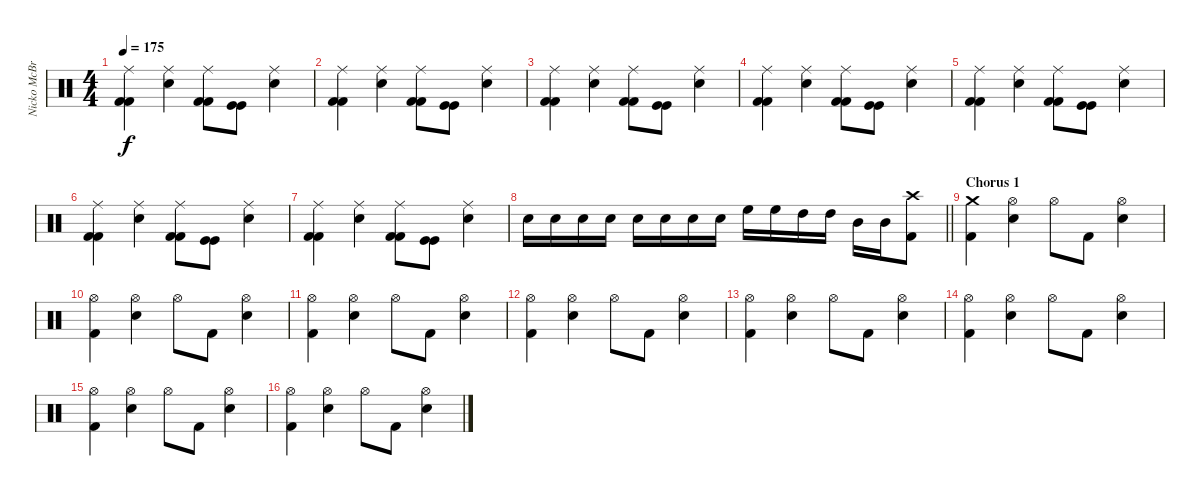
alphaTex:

\track ("Nicko McBrian" "Nicko McBr") {instrument percussion}
\staff {score}
\articulation defaults
\ts (4 4)
\tempo 175
\clef neutral
\ks c
("Ride (middle)" "Kick (hit) 2" "Kick (hit) 2").4{dy f} ("Ride (middle)" "Snare (hit) 2").4 ("Ride (middle)" "Kick (hit) 2" "Kick (hit) 2").8 ("Kick (hit)" "Kick (hit)").8 ("Ride (middle)" "Snare (hit) 2").4 |
("Ride (middle)" "Kick (hit) 2" "Kick (hit) 2").4 ("Ride (middle)" "Snare (hit) 2").4 ("Ride (middle)" "Kick (hit) 2" "Kick (hit) 2").8 ("Kick (hit)" "Kick (hit)").8 ("Ride (middle)" "Snare (hit) 2").4 |
("Ride (middle)" "Kick (hit) 2" "Kick (hit) 2").4 ("Ride (middle)" "Snare (hit) 2").4 ("Ride (middle)" "Kick (hit) 2" "Kick (hit) 2").8 ("Kick (hit)" "Kick (hit)").8 ("Ride (middle)" "Snare (hit) 2").4 |
("Ride (middle)" "Kick (hit) 2" "Kick (hit) 2").4 ("Ride (middle)" "Snare (hit) 2").4 ("Ride (middle)" "Kick (hit) 2" "Kick (hit) 2").8 ("Kick (hit)" "Kick (hit)").8 ("Ride (middle)" "Snare (hit) 2").4 |
("Ride (middle)" "Kick (hit) 2" "Kick (hit) 2").4 ("Ride (middle)" "Snare (hit) 2").4 ("Ride (middle)" "Kick (hit) 2" "Kick (hit) 2").8 ("Kick (hit)" "Kick (hit)").8 ("Ride (middle)" "Snare (hit) 2").4 |
("Ride (middle)" "Kick (hit) 2" "Kick (hit) 2").4 ("Ride (middle)" "Snare (hit) 2").4 ("Ride (middle)" "Kick (hit) 2" "Kick (hit) 2").8 ("Kick (hit)" "Kick (hit)").8 ("Ride (middle)" "Snare (hit) 2").4 |
("Ride (middle)" "Kick (hit) 2" "Kick (hit) 2").4 ("Ride (middle)" "Snare (hit) 2").4 ("Ride (middle)" "Kick (hit) 2" "Kick (hit) 2").8 ("Kick (hit)" "Kick (hit)").8 ("Ride (middle)" "Snare (hit) 2").4 |
\barLineRight lightlight "Snare (hit) 2".16 "Snare (hit) 2".16 "Snare (hit) 2".16 "Snare (hit) 2".16 "Snare (hit) 2".16 "Snare (hit) 2".16 "Snare (hit) 2".16 "Snare (hit) 2".16 "High Floor Tom (hit)".16 "High Floor Tom (hit)".16 "High Tom (hit)".16 "High Tom (hit)".16 "Mid Tom (hit)".16 "Mid Tom (hit)".16
("Crash high (hit)" "Kick (hit) 2").8 |
\section ("" "Chorus 1")
("Crash medium (hit)" "Kick (hit) 2").4 ("Hi-Hat (open)" "Snare (hit) 2").4 "Hi-Hat (open)".8 "Kick (hit) 2".8 ("Hi-Hat (open)" "Snare (hit) 2").4 |
("Hi-Hat (open)" "Kick (hit) 2").4 ("Hi-Hat (open)" "Snare (hit) 2").4 "Hi-Hat (open)".8 "Kick (hit) 2".8 ("Hi-Hat (open)" "Snare (hit) 2").4 |
("Hi-Hat (open)" "Kick (hit) 2").4 ("Hi-Hat (open)" "Snare (hit) 2").4 "Hi-Hat (open)".8 "Kick (hit) 2".8 ("Hi-Hat (open)" "Snare (hit) 2").4 |
("Hi-Hat (open)" "Kick (hit) 2").4 ("Hi-Hat (open)" "Snare (hit) 2").4 "Hi-Hat (open)".8 "Kick (hit) 2".8 ("Hi-Hat (open)" "Snare (hit) 2").4 |
("Hi-Hat (open)" "Kick (hit) 2").4 ("Hi-Hat (open)" "Snare (hit) 2").4 "Hi-Hat (open)".8 "Kick (hit) 2".8 ("Hi-Hat (open)" "Snare (hit) 2").4 |
("Hi-Hat (open)" "Kick (hit) 2").4 ("Hi-Hat (open)" "Snare (hit) 2").4 "Hi-Hat (open)".8 "Kick (hit) 2".8 ("Hi-Hat (open)" "Snare (hit) 2").4 |
("Hi-Hat (open)" "Kick (hit) 2").4 ("Hi-Hat (open)" "Snare (hit) 2").4 "Hi-Hat (open)".8 "Kick (hit) 2".8 ("Hi-Hat (open)" "Snare (hit) 2").4 |
("Hi-Hat (open)" "Kick (hit) 2").4 ("Hi-Hat (open)" "Snare (hit) 2").4 "Hi-Hat (open)".8 "Kick (hit) 2".8 ("Hi-Hat (open)" "Snare (hit) 2").4
